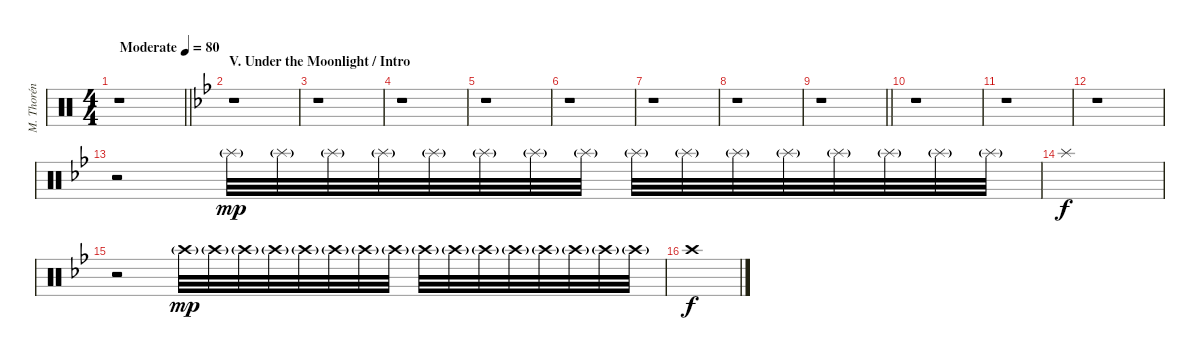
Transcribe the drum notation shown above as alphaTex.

\track ("M. Thorén (Drums)" "M. Thorén ") {instrument percussion}
\staff {score}
\articulation defaults
\ts (4 4)
\tempo (80 "Moderate")
\clef neutral
\barLineRight lightlight
\ks c
r.1{dy mp} |
\section ("" "V. Under the Moonlight / Intro")
\ks gminor
r.1 |
r.1 |
r.1 |
r.1 |
r.1 |
r.1 |
r.1 |
\barLineRight lightlight
r.1 |
r.1 |
r.1 |
r.1 |
r.2{volume 0} "Splash (hit)"{g}.32{volume 12} "Splash (hit)"{g}.32 "Splash (hit)"{g}.32 "Splash (hit)"{g}.32 "Splash (hit)"{g}.32 "Splash (hit)"{g}.32 "Splash (hit)"{g}.32 "Splash (hit)"{g}.32 "Splash (hit)"{g}.32 "Splash (hit)"{g}.32 "Splash (hit)"{g}.32 "Splash (hit)"{g}.32 "Splash (hit)"{g}.32 "Splash (hit)"{g}.32 "Splash (hit)"{g}.32 "Splash (hit)"{g}.32 |
"Splash (hit)".1{dy f} |
r.2{volume 0} "Crash high (hit)"{g}.32{dy mp volume 12} "Crash high (hit)"{g}.32 "Crash high (hit)"{g}.32 "Crash high (hit)"{g}.32 "Crash high (hit)"{g}.32 "Crash high (hit)"{g}.32 "Crash high (hit)"{g}.32 "Crash high (hit)"{g}.32 "Crash high (hit)"{g}.32 "Crash high (hit)"{g}.32 "Crash high (hit)"{g}.32 "Crash high (hit)"{g}.32 "Crash high (hit)"{g}.32 "Crash high (hit)"{g}.32 "Crash high (hit)"{g}.32 "Crash high (hit)"{g}.32 |
"Crash high (hit)".1{dy f}
